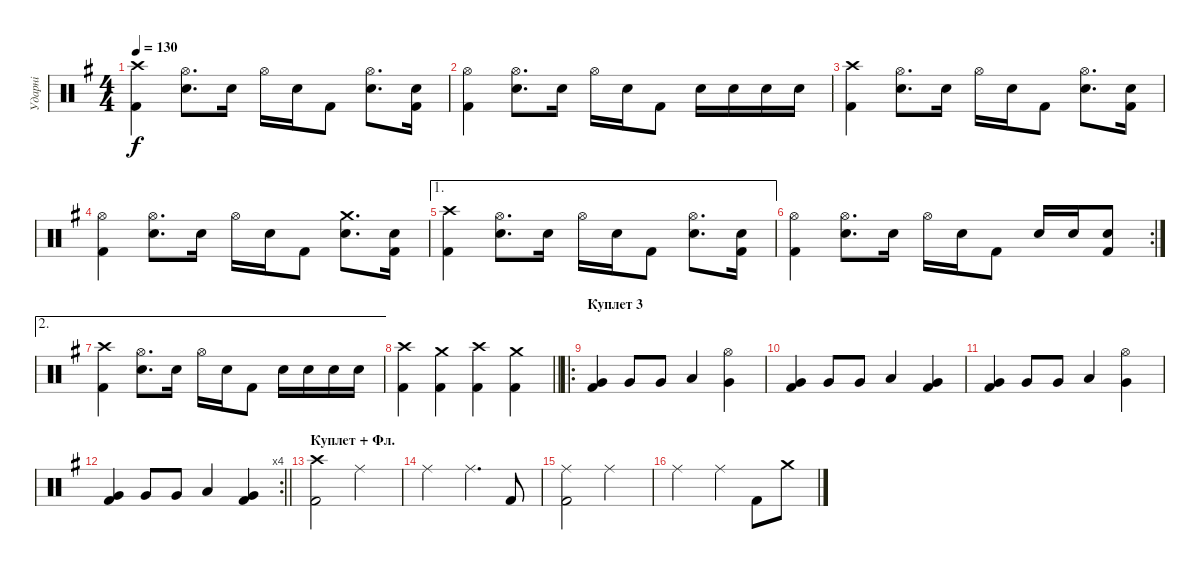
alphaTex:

\track ("Ударні" "Ударні") {instrument percussion}
\staff {score}
\articulation defaults
\ts (4 4)
\tempo 130
\clef neutral
\ks eminor
("Kick (hit) 2" "Crash high (hit)").4{dy f} ("Snare (hit) 2" "Hi-Hat (open)").8{d} "Snare (hit) 2".16 "Hi-Hat (open)".16 "Snare (hit) 2".16 "Kick (hit) 2".8 ("Snare (hit) 2" "Hi-Hat (open)").8{d} ("Kick (hit) 2" "Snare (hit) 2").16 |
("Kick (hit) 2" "Hi-Hat (open)").4 ("Snare (hit) 2" "Hi-Hat (open)").8{d} "Snare (hit) 2".16 "Hi-Hat (open)".16 "Snare (hit) 2".16 "Kick (hit) 2".8 "Snare (hit) 2".16 "Snare (hit) 2".16 "Snare (hit) 2".16 "Snare (hit) 2".16 |
("Kick (hit) 2" "Crash high (hit)").4 ("Snare (hit) 2" "Hi-Hat (open)").8{d} "Snare (hit) 2".16 "Hi-Hat (open)".16 "Snare (hit) 2".16 "Kick (hit) 2".8 ("Snare (hit) 2" "Hi-Hat (open)").8{d} ("Kick (hit) 2" "Snare (hit) 2").16 |
("Kick (hit) 2" "Hi-Hat (open)").4 ("Snare (hit) 2" "Hi-Hat (open)").8{d} "Snare (hit) 2".16 "Hi-Hat (open)".16 "Snare (hit) 2".16 "Kick (hit) 2".8 ("Snare (hit) 2" "Crash medium (hit)").8{d} ("Kick (hit) 2" "Snare (hit) 2").16 |
\ae 1
("Kick (hit) 2" "Crash high (hit)").4 ("Snare (hit) 2" "Hi-Hat (open)").8{d} "Snare (hit) 2".16 "Hi-Hat (open)".16 "Snare (hit) 2".16 "Kick (hit) 2".8 ("Snare (hit) 2" "Hi-Hat (open)").8{d} ("Kick (hit) 2" "Snare (hit) 2").16 |
\rc 2
("Kick (hit) 2" "Hi-Hat (open)").4 ("Snare (hit) 2" "Hi-Hat (open)").8{d} "Snare (hit) 2".16 "Hi-Hat (open)".16 "Snare (hit) 2".16 "Kick (hit) 2".8 "Snare (hit) 2".16 "Snare (hit) 2".16 ("Kick (hit) 2" "Snare (hit) 2").8 |
\ae 2
("Kick (hit) 2" "Crash high (hit)").4 ("Snare (hit) 2" "Hi-Hat (open)").8{d} "Snare (hit) 2".16 "Hi-Hat (open)".16 "Snare (hit) 2".16 "Kick (hit) 2".8 "Snare (hit) 2".16 "Snare (hit) 2".16 "Snare (hit) 2".16 "Snare (hit) 2".16 |
\barLineRight lightlight
("Kick (hit) 2" "Crash high (hit)").4 ("Kick (hit) 2" "Crash medium (hit)").4 ("Kick (hit) 2" "Crash high (hit)").4 ("Kick (hit) 2" "Crash medium (hit)").4 |
\ro
\section ("" "Куплет 3")
("Kick (hit) 2" "Very Low Tom (hit)").4 "Very Low Tom (hit)".8 "Very Low Tom (hit)".8 "Low Tom (hit)".4 ("Very Low Tom (hit)" "Hi-Hat (open)").4 |
("Kick (hit) 2" "Very Low Tom (hit)").4 "Very Low Tom (hit)".8 "Very Low Tom (hit)".8 "Low Tom (hit)".4 ("Kick (hit) 2" "Very Low Tom (hit)").4 |
("Kick (hit) 2" "Very Low Tom (hit)").4 "Very Low Tom (hit)".8 "Very Low Tom (hit)".8 "Low Tom (hit)".4 ("Very Low Tom (hit)" "Hi-Hat (open)").4 |
\rc 4
\barLineRight lightlight
("Kick (hit) 2" "Very Low Tom (hit)").4 "Very Low Tom (hit)".8 "Very Low Tom (hit)".8 "Low Tom (hit)".4 ("Kick (hit) 2" "Very Low Tom (hit)").4 |
\section ("" "Куплет + Фл.")
("Kick (hit) 2" "Crash high (hit)").2 "Ride (middle)".2 |
"Ride (middle)".2 "Ride (middle)".4{d} "Kick (hit) 2".8 |
("Kick (hit) 2" "Ride (middle)").2 "Ride (middle)".2 |
"Ride (middle)".2 "Ride (middle)".4 "Kick (hit) 2".8 "Crash medium (hit)".8
